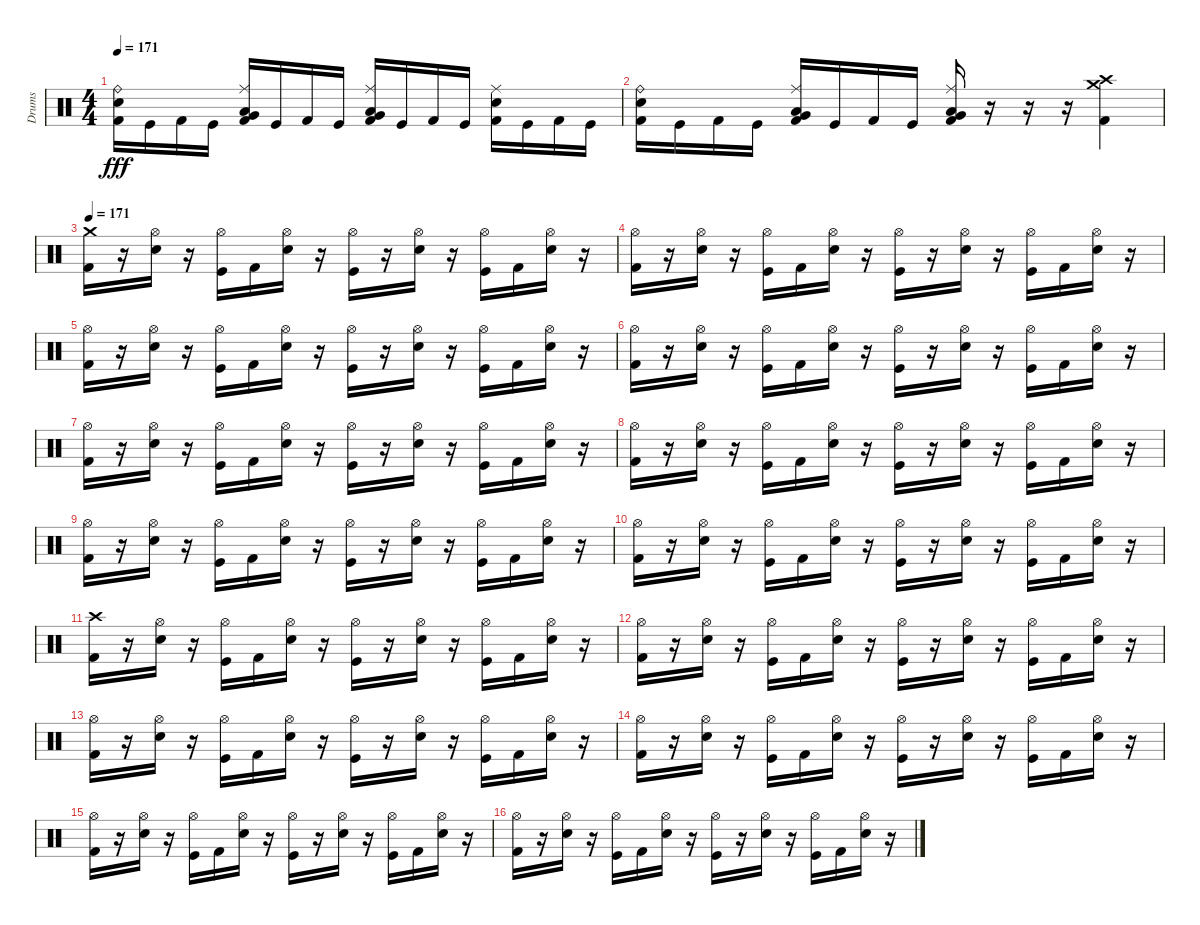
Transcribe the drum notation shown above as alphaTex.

\track ("Drums" "Drums") {instrument percussion}
\staff {score}
\articulation defaults
\ts (4 4)
\tempo 171
\tempo 167
\tempo 171
\clef neutral
\ks c
("Ride (bell)" "Electric Snare (hit)" "Kick (hit) 2").16{dy fff} "Kick (hit)".16 "Kick (hit) 2".16 "Kick (hit)".16 ("Ride (middle)" "Low Tom (hit)" "Very Low Tom (hit)" "Kick (hit) 2").16 "Kick (hit)".16 "Kick (hit) 2".16 "Kick (hit)".16 ("Ride (middle)" "Very Low Tom (hit)" "Low Floor Tom (hit)" "Kick (hit) 2").16 "Kick (hit)".16 "Kick (hit) 2".16 "Kick (hit)".16 ("Ride (middle)" "Electric Snare (hit)" "Kick (hit) 2").16 "Kick (hit)".16 "Kick (hit) 2".16 "Kick (hit)".16 |
("Ride (bell)" "Electric Snare (hit)" "Kick (hit) 2").16 "Kick (hit)".16 "Kick (hit) 2".16 "Kick (hit)".16 ("Ride (middle)" "Low Tom (hit)" "Very Low Tom (hit)" "Kick (hit) 2").16 "Kick (hit)".16 "Kick (hit) 2".16 "Kick (hit)".16 ("Ride (middle)" "Very Low Tom (hit)" "Low Floor Tom (hit)" "Kick (hit) 2").16 r.16 r.16 r.16 ("Crash high (hit)" "Crash medium (hit)" "Kick (hit) 2").4 |
\tempo 171
("Crash medium (hit)" "Kick (hit) 2").16 r.16 ("Hi-Hat (open)" "Electric Snare (hit)").16 r.16 ("Hi-Hat (open)" "Kick (hit)").16 "Kick (hit) 2".16 ("Hi-Hat (open)" "Electric Snare (hit)").16 r.16 ("Hi-Hat (open)" "Kick (hit)").16 r.16 ("Hi-Hat (open)" "Electric Snare (hit)").16 r.16 ("Hi-Hat (open)" "Kick (hit)").16 "Kick (hit) 2".16 ("Hi-Hat (open)" "Electric Snare (hit)").16 r.16 |
("Hi-Hat (open)" "Kick (hit) 2").16 r.16 ("Hi-Hat (open)" "Electric Snare (hit)").16 r.16 ("Hi-Hat (open)" "Kick (hit)").16 "Kick (hit) 2".16 ("Hi-Hat (open)" "Electric Snare (hit)").16 r.16 ("Hi-Hat (open)" "Kick (hit)").16 r.16 ("Hi-Hat (open)" "Electric Snare (hit)").16 r.16 ("Hi-Hat (open)" "Kick (hit)").16 "Kick (hit) 2".16 ("Hi-Hat (open)" "Electric Snare (hit)").16 r.16 |
("Hi-Hat (open)" "Kick (hit) 2").16 r.16 ("Hi-Hat (open)" "Electric Snare (hit)").16 r.16 ("Hi-Hat (open)" "Kick (hit)").16 "Kick (hit) 2".16 ("Hi-Hat (open)" "Electric Snare (hit)").16 r.16 ("Hi-Hat (open)" "Kick (hit)").16 r.16 ("Hi-Hat (open)" "Electric Snare (hit)").16 r.16 ("Hi-Hat (open)" "Kick (hit)").16 "Kick (hit) 2".16 ("Hi-Hat (open)" "Electric Snare (hit)").16 r.16 |
("Hi-Hat (open)" "Kick (hit) 2").16 r.16 ("Hi-Hat (open)" "Electric Snare (hit)").16 r.16 ("Hi-Hat (open)" "Kick (hit)").16 "Kick (hit) 2".16 ("Hi-Hat (open)" "Electric Snare (hit)").16 r.16 ("Hi-Hat (open)" "Kick (hit)").16 r.16 ("Hi-Hat (open)" "Electric Snare (hit)").16 r.16 ("Hi-Hat (open)" "Kick (hit)").16 "Kick (hit) 2".16 ("Hi-Hat (open)" "Electric Snare (hit)").16 r.16 |
("Hi-Hat (open)" "Kick (hit) 2").16 r.16 ("Hi-Hat (open)" "Electric Snare (hit)").16 r.16 ("Hi-Hat (open)" "Kick (hit)").16 "Kick (hit) 2".16 ("Hi-Hat (open)" "Electric Snare (hit)").16 r.16 ("Hi-Hat (open)" "Kick (hit)").16 r.16 ("Hi-Hat (open)" "Electric Snare (hit)").16 r.16 ("Hi-Hat (open)" "Kick (hit)").16 "Kick (hit) 2".16 ("Hi-Hat (open)" "Electric Snare (hit)").16 r.16 |
("Hi-Hat (open)" "Kick (hit) 2").16 r.16 ("Hi-Hat (open)" "Electric Snare (hit)").16 r.16 ("Hi-Hat (open)" "Kick (hit)").16 "Kick (hit) 2".16 ("Hi-Hat (open)" "Electric Snare (hit)").16 r.16 ("Hi-Hat (open)" "Kick (hit)").16 r.16 ("Hi-Hat (open)" "Electric Snare (hit)").16 r.16 ("Hi-Hat (open)" "Kick (hit)").16 "Kick (hit) 2".16 ("Hi-Hat (open)" "Electric Snare (hit)").16 r.16 |
("Hi-Hat (open)" "Kick (hit) 2").16 r.16 ("Hi-Hat (open)" "Electric Snare (hit)").16 r.16 ("Hi-Hat (open)" "Kick (hit)").16 "Kick (hit) 2".16 ("Hi-Hat (open)" "Electric Snare (hit)").16 r.16 ("Hi-Hat (open)" "Kick (hit)").16 r.16 ("Hi-Hat (open)" "Electric Snare (hit)").16 r.16 ("Hi-Hat (open)" "Kick (hit)").16 "Kick (hit) 2".16 ("Hi-Hat (open)" "Electric Snare (hit)").16 r.16 |
("Hi-Hat (open)" "Kick (hit) 2").16 r.16 ("Hi-Hat (open)" "Electric Snare (hit)").16 r.16 ("Hi-Hat (open)" "Kick (hit)").16 "Kick (hit) 2".16 ("Hi-Hat (open)" "Electric Snare (hit)").16 r.16 ("Hi-Hat (open)" "Kick (hit)").16 r.16 ("Hi-Hat (open)" "Electric Snare (hit)").16 r.16 ("Hi-Hat (open)" "Kick (hit)").16 "Kick (hit) 2".16 ("Hi-Hat (open)" "Electric Snare (hit)").16 r.16 |
("Crash high (hit)" "Kick (hit) 2").16 r.16 ("Hi-Hat (open)" "Electric Snare (hit)").16 r.16 ("Hi-Hat (open)" "Kick (hit)").16 "Kick (hit) 2".16 ("Hi-Hat (open)" "Electric Snare (hit)").16 r.16 ("Hi-Hat (open)" "Kick (hit)").16 r.16 ("Hi-Hat (open)" "Electric Snare (hit)").16 r.16 ("Hi-Hat (open)" "Kick (hit)").16 "Kick (hit) 2".16 ("Hi-Hat (open)" "Electric Snare (hit)").16 r.16 |
("Hi-Hat (open)" "Kick (hit) 2").16 r.16 ("Hi-Hat (open)" "Electric Snare (hit)").16 r.16 ("Hi-Hat (open)" "Kick (hit)").16 "Kick (hit) 2".16 ("Hi-Hat (open)" "Electric Snare (hit)").16 r.16 ("Hi-Hat (open)" "Kick (hit)").16 r.16 ("Hi-Hat (open)" "Electric Snare (hit)").16 r.16 ("Hi-Hat (open)" "Kick (hit)").16 "Kick (hit) 2".16 ("Hi-Hat (open)" "Electric Snare (hit)").16 r.16 |
("Hi-Hat (open)" "Kick (hit) 2").16 r.16 ("Hi-Hat (open)" "Electric Snare (hit)").16 r.16 ("Hi-Hat (open)" "Kick (hit)").16 "Kick (hit) 2".16 ("Hi-Hat (open)" "Electric Snare (hit)").16 r.16 ("Hi-Hat (open)" "Kick (hit)").16 r.16 ("Hi-Hat (open)" "Electric Snare (hit)").16 r.16 ("Hi-Hat (open)" "Kick (hit)").16 "Kick (hit) 2".16 ("Hi-Hat (open)" "Electric Snare (hit)").16 r.16 |
("Hi-Hat (open)" "Kick (hit) 2").16 r.16 ("Hi-Hat (open)" "Electric Snare (hit)").16 r.16 ("Hi-Hat (open)" "Kick (hit)").16 "Kick (hit) 2".16 ("Hi-Hat (open)" "Electric Snare (hit)").16 r.16 ("Hi-Hat (open)" "Kick (hit)").16 r.16 ("Hi-Hat (open)" "Electric Snare (hit)").16 r.16 ("Hi-Hat (open)" "Kick (hit)").16 "Kick (hit) 2".16 ("Hi-Hat (open)" "Electric Snare (hit)").16 r.16 |
("Hi-Hat (open)" "Kick (hit) 2").16 r.16 ("Hi-Hat (open)" "Electric Snare (hit)").16 r.16 ("Hi-Hat (open)" "Kick (hit)").16 "Kick (hit) 2".16 ("Hi-Hat (open)" "Electric Snare (hit)").16 r.16 ("Hi-Hat (open)" "Kick (hit)").16 r.16 ("Hi-Hat (open)" "Electric Snare (hit)").16 r.16 ("Hi-Hat (open)" "Kick (hit)").16 "Kick (hit) 2".16 ("Hi-Hat (open)" "Electric Snare (hit)").16 r.16 |
("Hi-Hat (open)" "Kick (hit) 2").16 r.16 ("Hi-Hat (open)" "Electric Snare (hit)").16 r.16 ("Hi-Hat (open)" "Kick (hit)").16 "Kick (hit) 2".16 ("Hi-Hat (open)" "Electric Snare (hit)").16 r.16 ("Hi-Hat (open)" "Kick (hit)").16 r.16 ("Hi-Hat (open)" "Electric Snare (hit)").16 r.16 ("Hi-Hat (open)" "Kick (hit)").16 "Kick (hit) 2".16 ("Hi-Hat (open)" "Electric Snare (hit)").16 r.16
